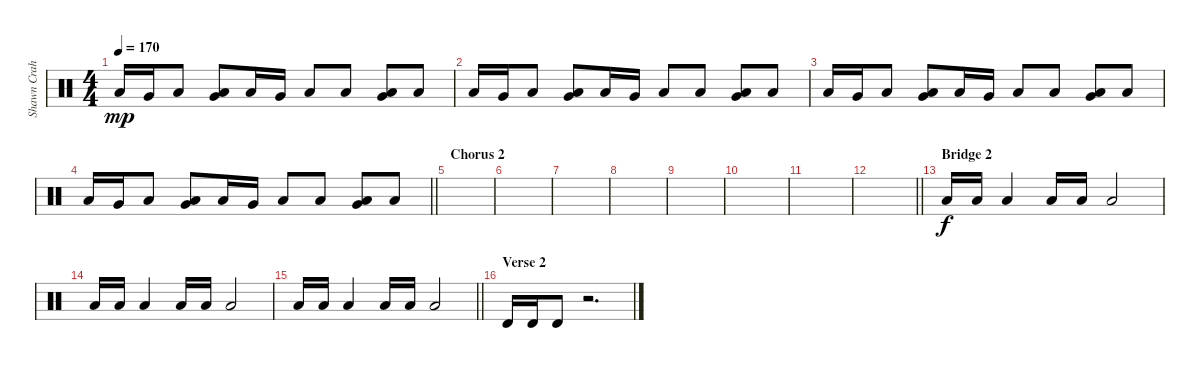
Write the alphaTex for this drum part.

\track ("Shawn Crahan" "Shawn Crah") {instrument percussion}
\staff {score}
\articulation defaults
\ts (4 4)
\tempo 170
\clef neutral
\ks c "Low Floor Tom (hit)".16{dy mp} "Very Low Tom (hit)".16 "Low Floor Tom (hit)".8
("Very Low Tom (hit)" "Low Floor Tom (hit)").8 "Low Floor Tom (hit)".16 "Very Low Tom (hit)".16 "Low Floor Tom (hit)".8 "Low Floor Tom (hit)".8 ("Very Low Tom (hit)" "Low Floor Tom (hit)").8 "Low Floor Tom (hit)".8 |
"Low Floor Tom (hit)".16 "Very Low Tom (hit)".16 "Low Floor Tom (hit)".8 ("Very Low Tom (hit)" "Low Floor Tom (hit)").8 "Low Floor Tom (hit)".16 "Very Low Tom (hit)".16 "Low Floor Tom (hit)".8 "Low Floor Tom (hit)".8 ("Very Low Tom (hit)" "Low Floor Tom (hit)").8 "Low Floor Tom (hit)".8 |
"Low Floor Tom (hit)".16 "Very Low Tom (hit)".16 "Low Floor Tom (hit)".8 ("Very Low Tom (hit)" "Low Floor Tom (hit)").8 "Low Floor Tom (hit)".16 "Very Low Tom (hit)".16 "Low Floor Tom (hit)".8 "Low Floor Tom (hit)".8 ("Very Low Tom (hit)" "Low Floor Tom (hit)").8 "Low Floor Tom (hit)".8 |
\barLineRight lightlight "Low Floor Tom (hit)".16 "Very Low Tom (hit)".16 "Low Floor Tom (hit)".8
("Very Low Tom (hit)" "Low Floor Tom (hit)").8 "Low Floor Tom (hit)".16 "Very Low Tom (hit)".16 "Low Floor Tom (hit)".8 "Low Floor Tom (hit)".8 ("Very Low Tom (hit)" "Low Floor Tom (hit)").8 "Low Floor Tom (hit)".8 |
\section ("" "Chorus 2")
|
|
|
|
|
|
|
\barLineRight lightlight
|
\section ("" "Bridge 2")
"Low Floor Tom (hit)".16{dy f} "Low Floor Tom (hit)".16 "Low Floor Tom (hit)".4 "Low Floor Tom (hit)".16 "Low Floor Tom (hit)".16 "Low Floor Tom (hit)".2 |
"Low Floor Tom (hit)".16 "Low Floor Tom (hit)".16 "Low Floor Tom (hit)".4 "Low Floor Tom (hit)".16 "Low Floor Tom (hit)".16 "Low Floor Tom (hit)".2 |
\barLineRight lightlight "Low Floor Tom (hit)".16 "Low Floor Tom (hit)".16 "Low Floor Tom (hit)".4 "Low Floor Tom (hit)".16 "Low Floor Tom (hit)".16 "Low Floor Tom (hit)".2
|
\section ("" "Verse 2")
"Timbale high (hit)".16 "Timbale high (hit)".16 "Timbale high (hit)".8 r.2{d}
